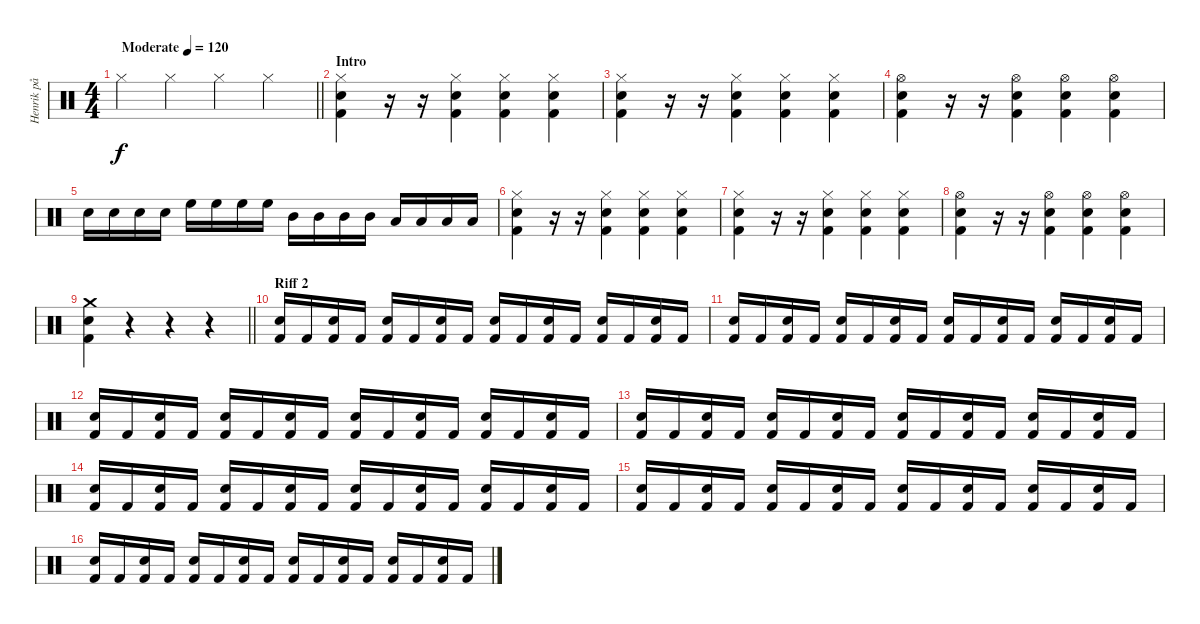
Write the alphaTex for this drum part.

\track ("Henrik på trommer" "Henrik på ") {instrument percussion}
\staff {score}
\articulation defaults
\ts (4 4)
\tempo (120 "Moderate")
\clef neutral
\barLineRight lightlight
\ks c "Hi-Hat (closed)".4{dy f} "Hi-Hat (closed)".4 "Hi-Hat (closed)".4 "Hi-Hat (closed)".4
|
\section ("" "Intro")
("Hi-Hat (closed)" "Kick (hit) 2" "Electric Snare (hit)").4 r.16 r.16 ("Hi-Hat (closed)" "Kick (hit) 2" "Electric Snare (hit)").4 ("Hi-Hat (closed)" "Kick (hit) 2" "Electric Snare (hit)").4 ("Hi-Hat (closed)" "Kick (hit) 2" "Electric Snare (hit)").4 |
("Hi-Hat (closed)" "Kick (hit) 2" "Electric Snare (hit)").4 r.16 r.16 ("Hi-Hat (closed)" "Kick (hit) 2" "Electric Snare (hit)").4 ("Hi-Hat (closed)" "Kick (hit) 2" "Electric Snare (hit)").4 ("Hi-Hat (closed)" "Kick (hit) 2" "Electric Snare (hit)").4 |
("Hi-Hat (open)" "Kick (hit) 2" "Electric Snare (hit)").4 r.16 r.16 ("Hi-Hat (open)" "Kick (hit) 2" "Electric Snare (hit)").4 ("Hi-Hat (open)" "Kick (hit) 2" "Electric Snare (hit)").4 ("Hi-Hat (open)" "Kick (hit) 2" "Electric Snare (hit)").4 |
"Electric Snare (hit)".16 "Electric Snare (hit)".16 "Electric Snare (hit)".16 "Electric Snare (hit)".16 "High Floor Tom (hit)".16 "High Floor Tom (hit)".16 "High Floor Tom (hit)".16 "High Floor Tom (hit)".16 "Mid Tom (hit)".16 "Mid Tom (hit)".16 "Mid Tom (hit)".16 "Mid Tom (hit)".16 "Low Tom (hit)".16 "Low Tom (hit)".16 "Low Tom (hit)".16 "Low Tom (hit)".16 |
("Hi-Hat (closed)" "Kick (hit) 2" "Electric Snare (hit)").4 r.16 r.16 ("Hi-Hat (closed)" "Kick (hit) 2" "Electric Snare (hit)").4 ("Hi-Hat (closed)" "Kick (hit) 2" "Electric Snare (hit)").4 ("Hi-Hat (closed)" "Kick (hit) 2" "Electric Snare (hit)").4 |
("Hi-Hat (closed)" "Kick (hit) 2" "Electric Snare (hit)").4 r.16 r.16 ("Hi-Hat (closed)" "Kick (hit) 2" "Electric Snare (hit)").4 ("Hi-Hat (closed)" "Kick (hit) 2" "Electric Snare (hit)").4 ("Hi-Hat (closed)" "Kick (hit) 2" "Electric Snare (hit)").4 |
("Hi-Hat (open)" "Kick (hit) 2" "Electric Snare (hit)").4 r.16 r.16 ("Hi-Hat (open)" "Kick (hit) 2" "Electric Snare (hit)").4 ("Hi-Hat (open)" "Kick (hit) 2" "Electric Snare (hit)").4 ("Hi-Hat (open)" "Kick (hit) 2" "Electric Snare (hit)").4 |
\barLineRight lightlight
("Crash medium (hit)" "Kick (hit) 2" "Electric Snare (hit)").4 r.4 r.4 r.4 |
\section ("" "Riff 2")
("Electric Snare (hit)" "Kick (hit) 2").16 "Kick (hit) 2".16 ("Electric Snare (hit)" "Kick (hit) 2").16 "Kick (hit) 2".16 ("Electric Snare (hit)" "Kick (hit) 2").16 "Kick (hit) 2".16 ("Electric Snare (hit)" "Kick (hit) 2").16 "Kick (hit) 2".16 ("Electric Snare (hit)" "Kick (hit) 2").16 "Kick (hit) 2".16 ("Electric Snare (hit)" "Kick (hit) 2").16 "Kick (hit) 2".16 ("Electric Snare (hit)" "Kick (hit) 2").16 "Kick (hit) 2".16 ("Electric Snare (hit)" "Kick (hit) 2").16 "Kick (hit) 2".16 |
("Electric Snare (hit)" "Kick (hit) 2").16 "Kick (hit) 2".16 ("Electric Snare (hit)" "Kick (hit) 2").16 "Kick (hit) 2".16 ("Electric Snare (hit)" "Kick (hit) 2").16 "Kick (hit) 2".16 ("Electric Snare (hit)" "Kick (hit) 2").16 "Kick (hit) 2".16 ("Electric Snare (hit)" "Kick (hit) 2").16 "Kick (hit) 2".16 ("Electric Snare (hit)" "Kick (hit) 2").16 "Kick (hit) 2".16 ("Electric Snare (hit)" "Kick (hit) 2").16 "Kick (hit) 2".16 ("Electric Snare (hit)" "Kick (hit) 2").16 "Kick (hit) 2".16 |
("Electric Snare (hit)" "Kick (hit) 2").16 "Kick (hit) 2".16 ("Electric Snare (hit)" "Kick (hit) 2").16 "Kick (hit) 2".16 ("Electric Snare (hit)" "Kick (hit) 2").16 "Kick (hit) 2".16 ("Electric Snare (hit)" "Kick (hit) 2").16 "Kick (hit) 2".16 ("Electric Snare (hit)" "Kick (hit) 2").16 "Kick (hit) 2".16 ("Electric Snare (hit)" "Kick (hit) 2").16 "Kick (hit) 2".16 ("Electric Snare (hit)" "Kick (hit) 2").16 "Kick (hit) 2".16 ("Electric Snare (hit)" "Kick (hit) 2").16 "Kick (hit) 2".16 |
("Electric Snare (hit)" "Kick (hit) 2").16 "Kick (hit) 2".16 ("Electric Snare (hit)" "Kick (hit) 2").16 "Kick (hit) 2".16 ("Electric Snare (hit)" "Kick (hit) 2").16 "Kick (hit) 2".16 ("Electric Snare (hit)" "Kick (hit) 2").16 "Kick (hit) 2".16 ("Electric Snare (hit)" "Kick (hit) 2").16 "Kick (hit) 2".16 ("Electric Snare (hit)" "Kick (hit) 2").16 "Kick (hit) 2".16 ("Electric Snare (hit)" "Kick (hit) 2").16 "Kick (hit) 2".16 ("Electric Snare (hit)" "Kick (hit) 2").16 "Kick (hit) 2".16 |
("Electric Snare (hit)" "Kick (hit) 2").16 "Kick (hit) 2".16 ("Electric Snare (hit)" "Kick (hit) 2").16 "Kick (hit) 2".16 ("Electric Snare (hit)" "Kick (hit) 2").16 "Kick (hit) 2".16 ("Electric Snare (hit)" "Kick (hit) 2").16 "Kick (hit) 2".16 ("Electric Snare (hit)" "Kick (hit) 2").16 "Kick (hit) 2".16 ("Electric Snare (hit)" "Kick (hit) 2").16 "Kick (hit) 2".16 ("Electric Snare (hit)" "Kick (hit) 2").16 "Kick (hit) 2".16 ("Electric Snare (hit)" "Kick (hit) 2").16 "Kick (hit) 2".16 |
("Electric Snare (hit)" "Kick (hit) 2").16 "Kick (hit) 2".16 ("Electric Snare (hit)" "Kick (hit) 2").16 "Kick (hit) 2".16 ("Electric Snare (hit)" "Kick (hit) 2").16 "Kick (hit) 2".16 ("Electric Snare (hit)" "Kick (hit) 2").16 "Kick (hit) 2".16 ("Electric Snare (hit)" "Kick (hit) 2").16 "Kick (hit) 2".16 ("Electric Snare (hit)" "Kick (hit) 2").16 "Kick (hit) 2".16 ("Electric Snare (hit)" "Kick (hit) 2").16 "Kick (hit) 2".16 ("Electric Snare (hit)" "Kick (hit) 2").16 "Kick (hit) 2".16 |
("Electric Snare (hit)" "Kick (hit) 2").16 "Kick (hit) 2".16 ("Electric Snare (hit)" "Kick (hit) 2").16 "Kick (hit) 2".16 ("Electric Snare (hit)" "Kick (hit) 2").16 "Kick (hit) 2".16 ("Electric Snare (hit)" "Kick (hit) 2").16 "Kick (hit) 2".16 ("Electric Snare (hit)" "Kick (hit) 2").16 "Kick (hit) 2".16 ("Electric Snare (hit)" "Kick (hit) 2").16 "Kick (hit) 2".16 ("Electric Snare (hit)" "Kick (hit) 2").16 "Kick (hit) 2".16 ("Electric Snare (hit)" "Kick (hit) 2").16 "Kick (hit) 2".16
